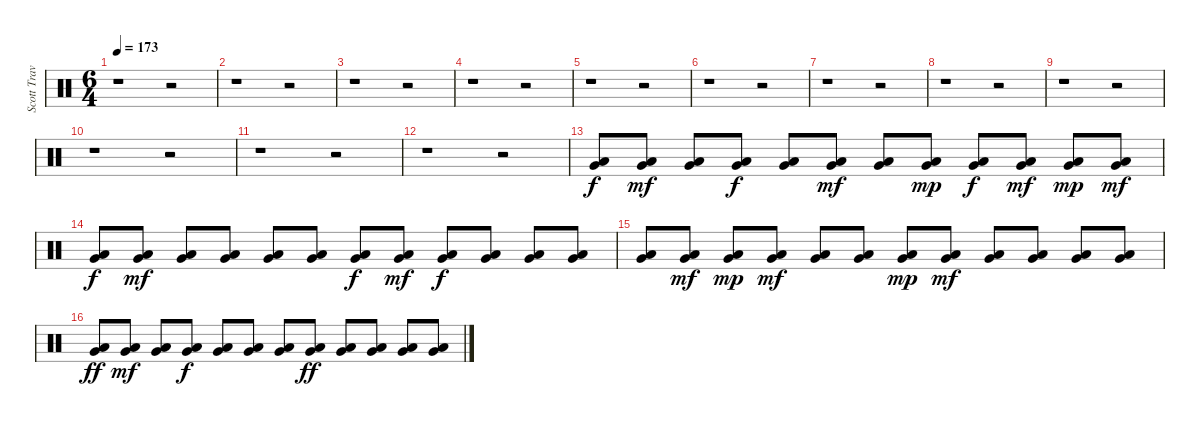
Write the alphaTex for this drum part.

\track ("Scott Travis" "Scott Trav") {instrument percussion}
\staff {score}
\articulation defaults
\ts (6 4)
\tempo 173
\clef neutral
\ks c
r.1{dy f} r.2 |
r.1 r.2 |
r.1 r.2 |
r.1 r.2 |
r.1 r.2 |
r.1 r.2 |
r.1 r.2 |
r.1 r.2 |
r.1 r.2 |
r.1 r.2 |
r.1 r.2 |
r.1 r.2 |
("Very Low Tom (hit)" "Low Floor Tom (hit)").8{volume 8} ("Low Floor Tom (hit)" "Very Low Tom (hit)").8{dy mf volume 8} ("Low Floor Tom (hit)" "Very Low Tom (hit)").8{volume 8} ("Very Low Tom (hit)" "Low Floor Tom (hit)").8{dy f volume 8} ("Very Low Tom (hit)" "Low Floor Tom (hit)").8{volume 8} ("Very Low Tom (hit)" "Low Floor Tom (hit)").8{dy mf volume 8} ("Very Low Tom (hit)" "Low Floor Tom (hit)").8{volume 8} ("Very Low Tom (hit)" "Low Floor Tom (hit)").8{dy mp volume 9} ("Very Low Tom (hit)" "Low Floor Tom (hit)").8{dy f volume 9} ("Low Floor Tom (hit)" "Very Low Tom (hit)").8{dy mf volume 9} ("Low Floor Tom (hit)" "Very Low Tom (hit)").8{dy mp volume 9} ("Low Floor Tom (hit)" "Very Low Tom (hit)").8{dy mf volume 9} |
("Low Floor Tom (hit)" "Very Low Tom (hit)").8{dy f volume 10} ("Low Floor Tom (hit)" "Very Low Tom (hit)").8{dy mf volume 10} ("Low Floor Tom (hit)" "Very Low Tom (hit)").8{volume 10} ("Very Low Tom (hit)" "Low Floor Tom (hit)").8{volume 10} ("Very Low Tom (hit)" "Low Floor Tom (hit)").8{volume 10} ("Low Floor Tom (hit)" "Very Low Tom (hit)").8{volume 10} ("Very Low Tom (hit)" "Low Floor Tom (hit)").8{dy f volume 11} ("Low Floor Tom (hit)" "Very Low Tom (hit)").8{dy mf volume 11} ("Low Floor Tom (hit)" "Very Low Tom (hit)").8{dy f volume 11} ("Low Floor Tom (hit)" "Very Low Tom (hit)").8{volume 11} ("Very Low Tom (hit)" "Low Floor Tom (hit)").8{volume 11} ("Low Floor Tom (hit)" "Very Low Tom (hit)").8{volume 12} |
("Very Low Tom (hit)" "Low Floor Tom (hit)").8{volume 12} ("Low Floor Tom (hit)" "Very Low Tom (hit)").8{dy mf volume 12} ("Very Low Tom (hit)" "Low Floor Tom (hit)").8{dy mp volume 12} ("Low Floor Tom (hit)" "Very Low Tom (hit)").8{dy mf volume 12} ("Very Low Tom (hit)" "Low Floor Tom (hit)").8{volume 12} ("Very Low Tom (hit)" "Low Floor Tom (hit)").8{volume 12} ("Very Low Tom (hit)" "Low Floor Tom (hit)").8{dy mp volume 13} ("Low Floor Tom (hit)" "Very Low Tom (hit)").8{dy mf volume 13} ("Low Floor Tom (hit)" "Very Low Tom (hit)").8{volume 13} ("Low Floor Tom (hit)" "Very Low Tom (hit)").8{volume 13} ("Low Floor Tom (hit)" "Very Low Tom (hit)").8{volume 13} ("Low Floor Tom (hit)" "Very Low Tom (hit)").8{volume 14} |
("Very Low Tom (hit)" "Low Floor Tom (hit)").8{dy ff volume 14} ("Low Floor Tom (hit)" "Very Low Tom (hit)").8{dy mf volume 14} ("Low Floor Tom (hit)" "Very Low Tom (hit)").8{volume 14} ("Very Low Tom (hit)" "Low Floor Tom (hit)").8{dy f volume 14} ("Low Floor Tom (hit)" "Very Low Tom (hit)").8{volume 14} ("Low Floor Tom (hit)" "Very Low Tom (hit)").8{volume 15} ("Very Low Tom (hit)" "Low Floor Tom (hit)").8{volume 15} ("Very Low Tom (hit)" "Low Floor Tom (hit)").8{dy ff volume 15} ("Low Floor Tom (hit)" "Very Low Tom (hit)").8{volume 15} ("Low Floor Tom (hit)" "Very Low Tom (hit)").8{volume 15} ("Low Floor Tom (hit)" "Very Low Tom (hit)").8{volume 16} ("Very Low Tom (hit)" "Low Floor Tom (hit)").8{volume 16}
